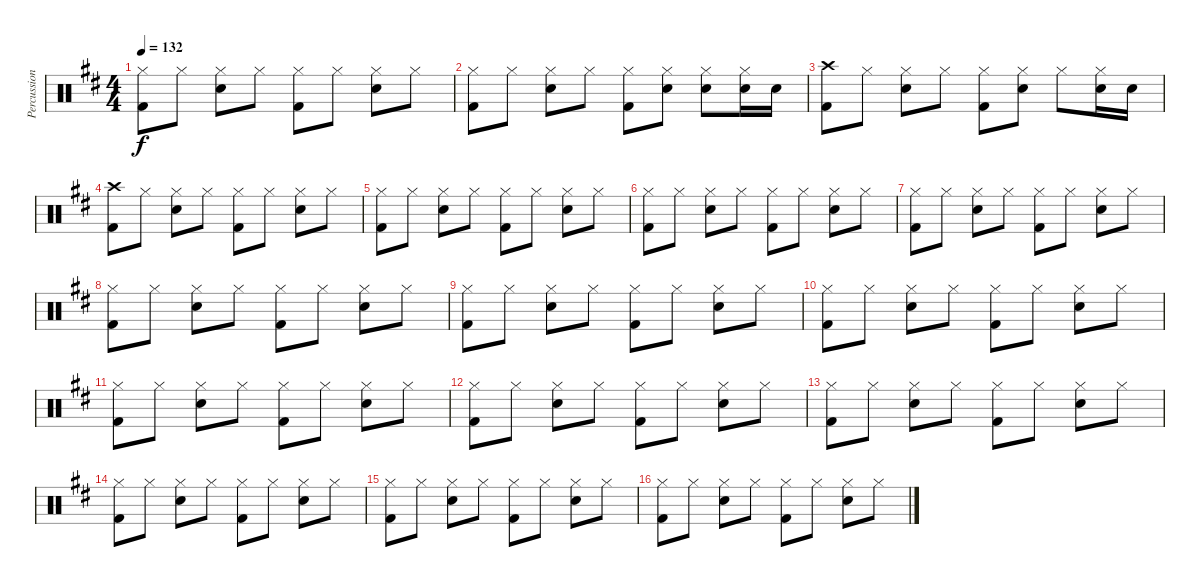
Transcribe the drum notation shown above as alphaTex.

\track ("Percussion" "Percussion") {instrument percussion}
\staff {score}
\articulation defaults
\ts (4 4)
\tempo 132
\clef neutral
\ks d
("Hi-Hat (closed)" "Kick (hit) 2").8{dy f} "Hi-Hat (closed)".8 ("Hi-Hat (closed)" "Electric Snare (hit)").8 "Hi-Hat (closed)".8 ("Hi-Hat (closed)" "Kick (hit) 2").8 "Hi-Hat (closed)".8 ("Hi-Hat (closed)" "Electric Snare (hit)").8 "Hi-Hat (closed)".8 |
("Hi-Hat (closed)" "Kick (hit) 2").8 "Hi-Hat (closed)".8 ("Hi-Hat (closed)" "Electric Snare (hit)").8 "Hi-Hat (closed)".8 ("Hi-Hat (closed)" "Kick (hit) 2").8 ("Hi-Hat (closed)" "Electric Snare (hit)").8 ("Hi-Hat (closed)" "Electric Snare (hit)").8 ("Hi-Hat (closed)" "Electric Snare (hit)").16 "Electric Snare (hit)".16 |
("Crash high (hit)" "Kick (hit) 2").8 "Hi-Hat (closed)".8 ("Hi-Hat (closed)" "Electric Snare (hit)").8 "Hi-Hat (closed)".8 ("Hi-Hat (closed)" "Kick (hit) 2").8 ("Hi-Hat (closed)" "Electric Snare (hit)").8 "Hi-Hat (closed)".8 ("Hi-Hat (closed)" "Electric Snare (hit)").16 "Electric Snare (hit)".16 |
("Crash high (hit)" "Kick (hit) 2").8 "Hi-Hat (closed)".8 ("Hi-Hat (closed)" "Electric Snare (hit)").8 "Hi-Hat (closed)".8 ("Hi-Hat (closed)" "Kick (hit) 2").8 "Hi-Hat (closed)".8 ("Hi-Hat (closed)" "Electric Snare (hit)").8 "Hi-Hat (closed)".8 |
("Hi-Hat (closed)" "Kick (hit) 2").8 "Hi-Hat (closed)".8 ("Hi-Hat (closed)" "Electric Snare (hit)").8 "Hi-Hat (closed)".8 ("Hi-Hat (closed)" "Kick (hit) 2").8 "Hi-Hat (closed)".8 ("Hi-Hat (closed)" "Electric Snare (hit)").8 "Hi-Hat (closed)".8 |
("Hi-Hat (closed)" "Kick (hit) 2").8 "Hi-Hat (closed)".8 ("Hi-Hat (closed)" "Electric Snare (hit)").8 "Hi-Hat (closed)".8 ("Hi-Hat (closed)" "Kick (hit) 2").8 "Hi-Hat (closed)".8 ("Hi-Hat (closed)" "Electric Snare (hit)").8 "Hi-Hat (closed)".8 |
("Hi-Hat (closed)" "Kick (hit) 2").8 "Hi-Hat (closed)".8 ("Hi-Hat (closed)" "Electric Snare (hit)").8 "Hi-Hat (closed)".8 ("Hi-Hat (closed)" "Kick (hit) 2").8 "Hi-Hat (closed)".8 ("Hi-Hat (closed)" "Electric Snare (hit)").8 "Hi-Hat (closed)".8 |
("Hi-Hat (closed)" "Kick (hit) 2").8 "Hi-Hat (closed)".8 ("Hi-Hat (closed)" "Electric Snare (hit)").8 "Hi-Hat (closed)".8 ("Hi-Hat (closed)" "Kick (hit) 2").8 "Hi-Hat (closed)".8 ("Hi-Hat (closed)" "Electric Snare (hit)").8 "Hi-Hat (closed)".8 |
("Hi-Hat (closed)" "Kick (hit) 2").8 "Hi-Hat (closed)".8 ("Hi-Hat (closed)" "Electric Snare (hit)").8 "Hi-Hat (closed)".8 ("Hi-Hat (closed)" "Kick (hit) 2").8 "Hi-Hat (closed)".8 ("Hi-Hat (closed)" "Electric Snare (hit)").8 "Hi-Hat (closed)".8 |
("Hi-Hat (closed)" "Kick (hit) 2").8 "Hi-Hat (closed)".8 ("Hi-Hat (closed)" "Electric Snare (hit)").8 "Hi-Hat (closed)".8 ("Hi-Hat (closed)" "Kick (hit) 2").8 "Hi-Hat (closed)".8 ("Hi-Hat (closed)" "Electric Snare (hit)").8 "Hi-Hat (closed)".8 |
("Hi-Hat (closed)" "Kick (hit) 2").8 "Hi-Hat (closed)".8 ("Hi-Hat (closed)" "Electric Snare (hit)").8 "Hi-Hat (closed)".8 ("Hi-Hat (closed)" "Kick (hit) 2").8 "Hi-Hat (closed)".8 ("Hi-Hat (closed)" "Electric Snare (hit)").8 "Hi-Hat (closed)".8 |
("Hi-Hat (closed)" "Kick (hit) 2").8 "Hi-Hat (closed)".8 ("Hi-Hat (closed)" "Electric Snare (hit)").8 "Hi-Hat (closed)".8 ("Hi-Hat (closed)" "Kick (hit) 2").8 "Hi-Hat (closed)".8 ("Hi-Hat (closed)" "Electric Snare (hit)").8 "Hi-Hat (closed)".8 |
("Hi-Hat (closed)" "Kick (hit) 2").8 "Hi-Hat (closed)".8 ("Hi-Hat (closed)" "Electric Snare (hit)").8 "Hi-Hat (closed)".8 ("Hi-Hat (closed)" "Kick (hit) 2").8 "Hi-Hat (closed)".8 ("Hi-Hat (closed)" "Electric Snare (hit)").8 "Hi-Hat (closed)".8 |
("Hi-Hat (closed)" "Kick (hit) 2").8 "Hi-Hat (closed)".8 ("Hi-Hat (closed)" "Electric Snare (hit)").8 "Hi-Hat (closed)".8 ("Hi-Hat (closed)" "Kick (hit) 2").8 "Hi-Hat (closed)".8 ("Hi-Hat (closed)" "Electric Snare (hit)").8 "Hi-Hat (closed)".8 |
("Hi-Hat (closed)" "Kick (hit) 2").8 "Hi-Hat (closed)".8 ("Hi-Hat (closed)" "Electric Snare (hit)").8 "Hi-Hat (closed)".8 ("Hi-Hat (closed)" "Kick (hit) 2").8 "Hi-Hat (closed)".8 ("Hi-Hat (closed)" "Electric Snare (hit)").8 "Hi-Hat (closed)".8 |
("Hi-Hat (closed)" "Kick (hit) 2").8 "Hi-Hat (closed)".8 ("Hi-Hat (closed)" "Electric Snare (hit)").8 "Hi-Hat (closed)".8 ("Hi-Hat (closed)" "Kick (hit) 2").8 "Hi-Hat (closed)".8 ("Hi-Hat (closed)" "Electric Snare (hit)").8 "Hi-Hat (closed)".8
